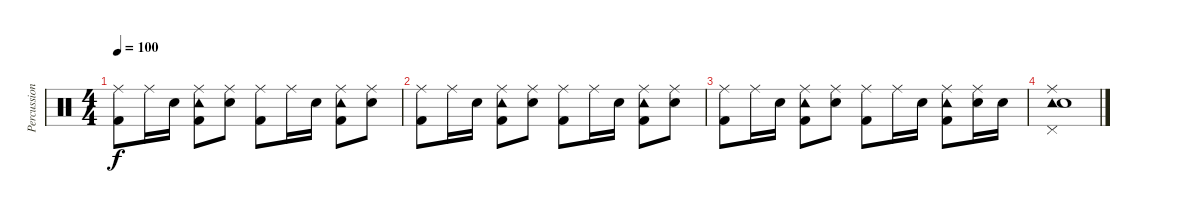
\track ("Percussion" "Percussion") {instrument percussion}
\staff {score}
\articulation defaults
\ts (4 4)
\tempo 100
\clef neutral
\ks c
("Kick (hit) 2" "Ride (middle)").8{dy f} "Ride (middle)".16 "Electric Snare (hit)".16 ("Kick (hit) 2" "Ride (middle)" "Tambourine (hit)").8 ("Ride (middle)" "Electric Snare (hit)").8 ("Kick (hit) 2" "Ride (middle)").8 "Ride (middle)".16 "Electric Snare (hit)".16 ("Kick (hit) 2" "Ride (middle)" "Tambourine (hit)").8 ("Ride (middle)" "Electric Snare (hit)").8 |
("Kick (hit) 2" "Ride (middle)").8 "Ride (middle)".16 "Electric Snare (hit)".16 ("Kick (hit) 2" "Ride (middle)" "Tambourine (hit)").8 ("Ride (middle)" "Electric Snare (hit)").8 ("Kick (hit) 2" "Ride (middle)").8 "Ride (middle)".16 "Electric Snare (hit)".16 ("Kick (hit) 2" "Ride (middle)" "Tambourine (hit)").8 ("Ride (middle)" "Electric Snare (hit)").8 |
("Kick (hit) 2" "Ride (middle)").8 "Ride (middle)".16 "Electric Snare (hit)".16 ("Kick (hit) 2" "Ride (middle)" "Tambourine (hit)").8 ("Ride (middle)" "Electric Snare (hit)").8 ("Kick (hit) 2" "Ride (middle)").8 "Ride (middle)".16 "Electric Snare (hit)".16 ("Kick (hit) 2" "Ride (middle)" "Tambourine (hit)").8 ("Ride (middle)" "Electric Snare (hit)").16 "Electric Snare (hit)".16 |
("Ride (middle)" "Tambourine (hit)" "Electric Snare (hit)" "Pedal Hi-Hat (hit)").1
